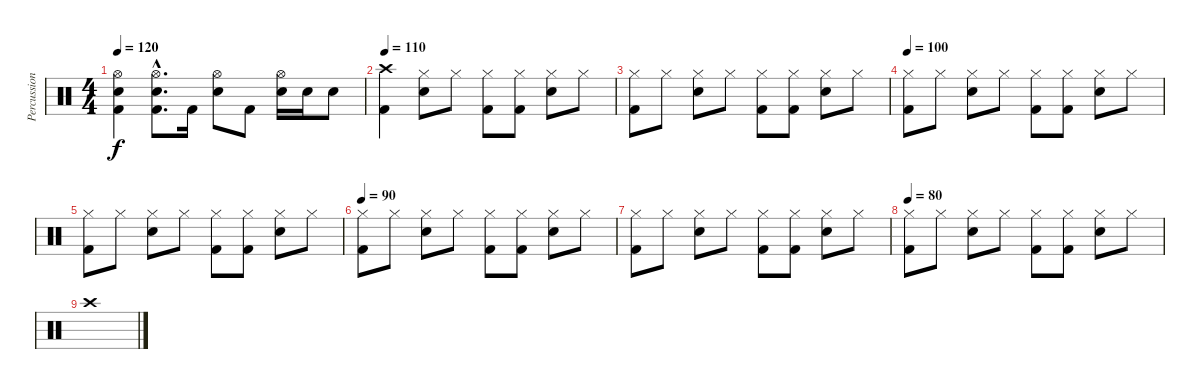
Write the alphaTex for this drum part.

\track ("Percussions" "Percussion") {instrument percussion}
\staff {score}
\articulation defaults
\ts (4 4)
\tempo 120
\clef neutral
\ks c
("Hi-Hat (open)" "Snare (hit) 2" "Kick (hit) 2").4{dy f} ("Hi-Hat (open)"{hac} "Snare (hit) 2"{hac} "Kick (hit) 2"{hac}).8{d} "Kick (hit) 2".16 ("Hi-Hat (open)" "Snare (hit) 2").8 "Kick (hit) 2".8 ("Hi-Hat (open)" "Snare (hit) 2").16 "Snare (hit) 2".16 "Snare (hit) 2".8 |
\tempo 110
("Crash high (hit)" "Kick (hit) 2").4 ("Hi-Hat (closed)" "Snare (hit) 2").8 "Hi-Hat (closed)".8 ("Hi-Hat (closed)" "Kick (hit) 2").8 ("Hi-Hat (closed)" "Kick (hit) 2").8 ("Hi-Hat (closed)" "Snare (hit) 2").8 "Hi-Hat (closed)".8 |
("Hi-Hat (closed)" "Kick (hit) 2").8 "Hi-Hat (closed)".8 ("Hi-Hat (closed)" "Snare (hit) 2").8 "Hi-Hat (closed)".8 ("Hi-Hat (closed)" "Kick (hit) 2").8 ("Hi-Hat (closed)" "Kick (hit) 2").8 ("Hi-Hat (closed)" "Snare (hit) 2").8 "Hi-Hat (closed)".8 |
\tempo 100
("Hi-Hat (closed)" "Kick (hit) 2").8 "Hi-Hat (closed)".8 ("Hi-Hat (closed)" "Snare (hit) 2").8 "Hi-Hat (closed)".8 ("Hi-Hat (closed)" "Kick (hit) 2").8 ("Hi-Hat (closed)" "Kick (hit) 2").8 ("Hi-Hat (closed)" "Snare (hit) 2").8 "Hi-Hat (closed)".8 |
("Hi-Hat (closed)" "Kick (hit) 2").8 "Hi-Hat (closed)".8 ("Hi-Hat (closed)" "Snare (hit) 2").8 "Hi-Hat (closed)".8 ("Hi-Hat (closed)" "Kick (hit) 2").8 ("Hi-Hat (closed)" "Kick (hit) 2").8 ("Hi-Hat (closed)" "Snare (hit) 2").8 "Hi-Hat (closed)".8 |
\tempo 90
("Hi-Hat (closed)" "Kick (hit) 2").8 "Hi-Hat (closed)".8 ("Hi-Hat (closed)" "Snare (hit) 2").8 "Hi-Hat (closed)".8 ("Hi-Hat (closed)" "Kick (hit) 2").8 ("Hi-Hat (closed)" "Kick (hit) 2").8 ("Hi-Hat (closed)" "Snare (hit) 2").8 "Hi-Hat (closed)".8 |
("Hi-Hat (closed)" "Kick (hit) 2").8 "Hi-Hat (closed)".8 ("Hi-Hat (closed)" "Snare (hit) 2").8 "Hi-Hat (closed)".8 ("Hi-Hat (closed)" "Kick (hit) 2").8 ("Hi-Hat (closed)" "Kick (hit) 2").8 ("Hi-Hat (closed)" "Snare (hit) 2").8 "Hi-Hat (closed)".8 |
\tempo 80
("Hi-Hat (closed)" "Kick (hit) 2").8 "Hi-Hat (closed)".8 ("Hi-Hat (closed)" "Snare (hit) 2").8 "Hi-Hat (closed)".8 ("Hi-Hat (closed)" "Kick (hit) 2").8 ("Hi-Hat (closed)" "Kick (hit) 2").8 ("Hi-Hat (closed)" "Snare (hit) 2").8 "Hi-Hat (closed)".8 |
"Crash high (hit)".1
